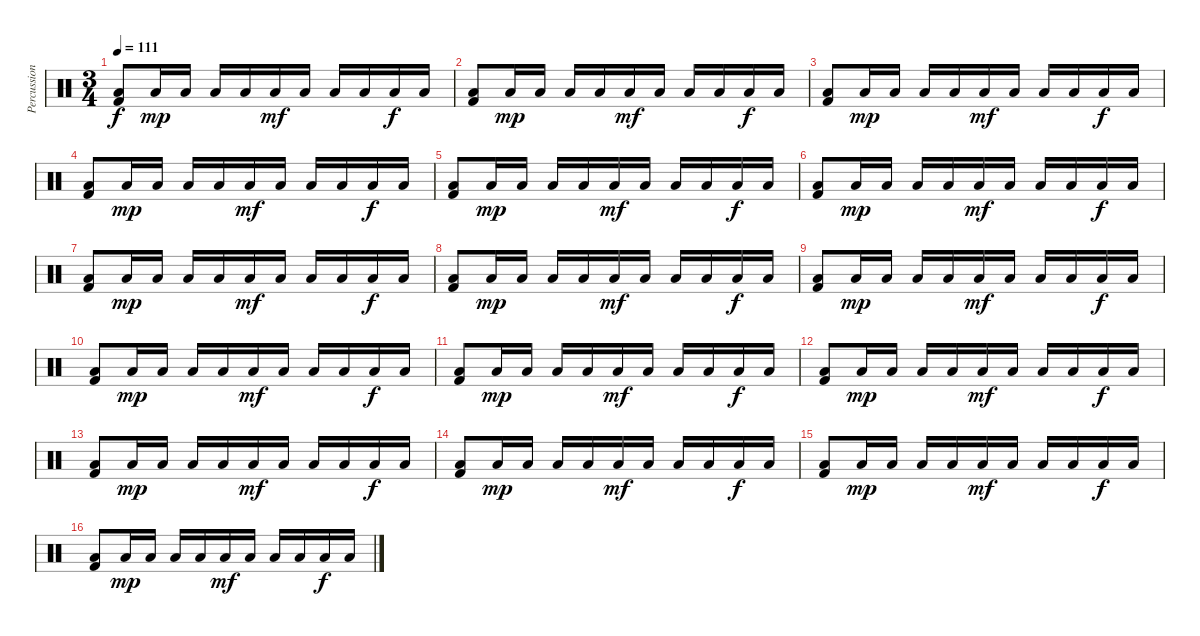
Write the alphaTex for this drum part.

\track ("Percussion 1" "Percussion") {instrument percussion}
\staff {score}
\articulation defaults
\ts (3 4)
\tempo 111
\clef neutral
\ks c
("Low Floor Tom (hit)" "Kick (hit) 2").8{dy f} "Low Tom (hit)".16{dy mp} "Low Tom (hit)".16 "Low Tom (hit)".16 "Low Tom (hit)".16 "Low Tom (hit)".16{dy mf} "Low Tom (hit)".16 "Low Tom (hit)".16 "Low Tom (hit)".16 "Low Floor Tom (hit)".16{dy f} "Low Floor Tom (hit)".16 |
("Low Floor Tom (hit)" "Kick (hit) 2").8 "Low Tom (hit)".16{dy mp} "Low Tom (hit)".16 "Low Tom (hit)".16 "Low Tom (hit)".16 "Low Tom (hit)".16{dy mf} "Low Tom (hit)".16 "Low Tom (hit)".16 "Low Tom (hit)".16 "Low Floor Tom (hit)".16{dy f} "Low Floor Tom (hit)".16 |
("Low Floor Tom (hit)" "Kick (hit) 2").8 "Low Tom (hit)".16{dy mp} "Low Tom (hit)".16 "Low Tom (hit)".16 "Low Tom (hit)".16 "Low Tom (hit)".16{dy mf} "Low Tom (hit)".16 "Low Tom (hit)".16 "Low Tom (hit)".16 "Low Floor Tom (hit)".16{dy f} "Low Floor Tom (hit)".16 |
("Low Floor Tom (hit)" "Kick (hit) 2").8 "Low Tom (hit)".16{dy mp} "Low Tom (hit)".16 "Low Tom (hit)".16 "Low Tom (hit)".16 "Low Tom (hit)".16{dy mf} "Low Tom (hit)".16 "Low Tom (hit)".16 "Low Tom (hit)".16 "Low Floor Tom (hit)".16{dy f} "Low Floor Tom (hit)".16 |
("Low Floor Tom (hit)" "Kick (hit) 2").8 "Low Tom (hit)".16{dy mp} "Low Tom (hit)".16 "Low Tom (hit)".16 "Low Tom (hit)".16 "Low Tom (hit)".16{dy mf} "Low Tom (hit)".16 "Low Tom (hit)".16 "Low Tom (hit)".16 "Low Floor Tom (hit)".16{dy f} "Low Floor Tom (hit)".16 |
("Low Floor Tom (hit)" "Kick (hit) 2").8{volume 12} "Low Tom (hit)".16{dy mp} "Low Tom (hit)".16 "Low Tom (hit)".16 "Low Tom (hit)".16 "Low Tom (hit)".16{dy mf} "Low Tom (hit)".16 "Low Tom (hit)".16 "Low Tom (hit)".16 "Low Floor Tom (hit)".16{dy f} "Low Floor Tom (hit)".16 |
("Low Floor Tom (hit)" "Kick (hit) 2").8 "Low Tom (hit)".16{dy mp} "Low Tom (hit)".16 "Low Tom (hit)".16 "Low Tom (hit)".16 "Low Tom (hit)".16{dy mf} "Low Tom (hit)".16 "Low Tom (hit)".16 "Low Tom (hit)".16 "Low Floor Tom (hit)".16{dy f} "Low Floor Tom (hit)".16 |
("Low Floor Tom (hit)" "Kick (hit) 2").8 "Low Tom (hit)".16{dy mp} "Low Tom (hit)".16 "Low Tom (hit)".16 "Low Tom (hit)".16 "Low Tom (hit)".16{dy mf} "Low Tom (hit)".16 "Low Tom (hit)".16 "Low Tom (hit)".16 "Low Floor Tom (hit)".16{dy f} "Low Floor Tom (hit)".16 |
("Low Floor Tom (hit)" "Kick (hit) 2").8 "Low Tom (hit)".16{dy mp} "Low Tom (hit)".16 "Low Tom (hit)".16 "Low Tom (hit)".16 "Low Tom (hit)".16{dy mf} "Low Tom (hit)".16 "Low Tom (hit)".16 "Low Tom (hit)".16 "Low Floor Tom (hit)".16{dy f} "Low Floor Tom (hit)".16 |
("Low Floor Tom (hit)" "Kick (hit) 2").8 "Low Tom (hit)".16{dy mp} "Low Tom (hit)".16 "Low Tom (hit)".16 "Low Tom (hit)".16 "Low Tom (hit)".16{dy mf} "Low Tom (hit)".16 "Low Tom (hit)".16 "Low Tom (hit)".16 "Low Floor Tom (hit)".16{dy f} "Low Floor Tom (hit)".16 |
("Low Floor Tom (hit)" "Kick (hit) 2").8 "Low Tom (hit)".16{dy mp} "Low Tom (hit)".16 "Low Tom (hit)".16 "Low Tom (hit)".16 "Low Tom (hit)".16{dy mf volume 16} "Low Tom (hit)".16 "Low Tom (hit)".16 "Low Tom (hit)".16 "Low Floor Tom (hit)".16{dy f} "Low Floor Tom (hit)".16 |
("Low Floor Tom (hit)" "Kick (hit) 2").8 "Low Tom (hit)".16{dy mp} "Low Tom (hit)".16 "Low Tom (hit)".16 "Low Tom (hit)".16 "Low Tom (hit)".16{dy mf} "Low Tom (hit)".16 "Low Tom (hit)".16 "Low Tom (hit)".16 "Low Floor Tom (hit)".16{dy f} "Low Floor Tom (hit)".16 |
("Low Floor Tom (hit)" "Kick (hit) 2").8 "Low Tom (hit)".16{dy mp} "Low Tom (hit)".16 "Low Tom (hit)".16 "Low Tom (hit)".16 "Low Tom (hit)".16{dy mf} "Low Tom (hit)".16 "Low Tom (hit)".16 "Low Tom (hit)".16 "Low Floor Tom (hit)".16{dy f} "Low Floor Tom (hit)".16 |
("Low Floor Tom (hit)" "Kick (hit) 2").8 "Low Tom (hit)".16{dy mp} "Low Tom (hit)".16 "Low Tom (hit)".16 "Low Tom (hit)".16 "Low Tom (hit)".16{dy mf} "Low Tom (hit)".16 "Low Tom (hit)".16 "Low Tom (hit)".16 "Low Floor Tom (hit)".16{dy f} "Low Floor Tom (hit)".16 |
("Low Floor Tom (hit)" "Kick (hit) 2").8 "Low Tom (hit)".16{dy mp} "Low Tom (hit)".16 "Low Tom (hit)".16 "Low Tom (hit)".16 "Low Tom (hit)".16{dy mf} "Low Tom (hit)".16 "Low Tom (hit)".16 "Low Tom (hit)".16 "Low Floor Tom (hit)".16{dy f} "Low Floor Tom (hit)".16 |
("Low Floor Tom (hit)" "Kick (hit) 2").8 "Low Tom (hit)".16{dy mp} "Low Tom (hit)".16 "Low Tom (hit)".16 "Low Tom (hit)".16 "Low Tom (hit)".16{dy mf} "Low Tom (hit)".16 "Low Tom (hit)".16 "Low Tom (hit)".16 "Low Floor Tom (hit)".16{dy f} "Low Floor Tom (hit)".16
